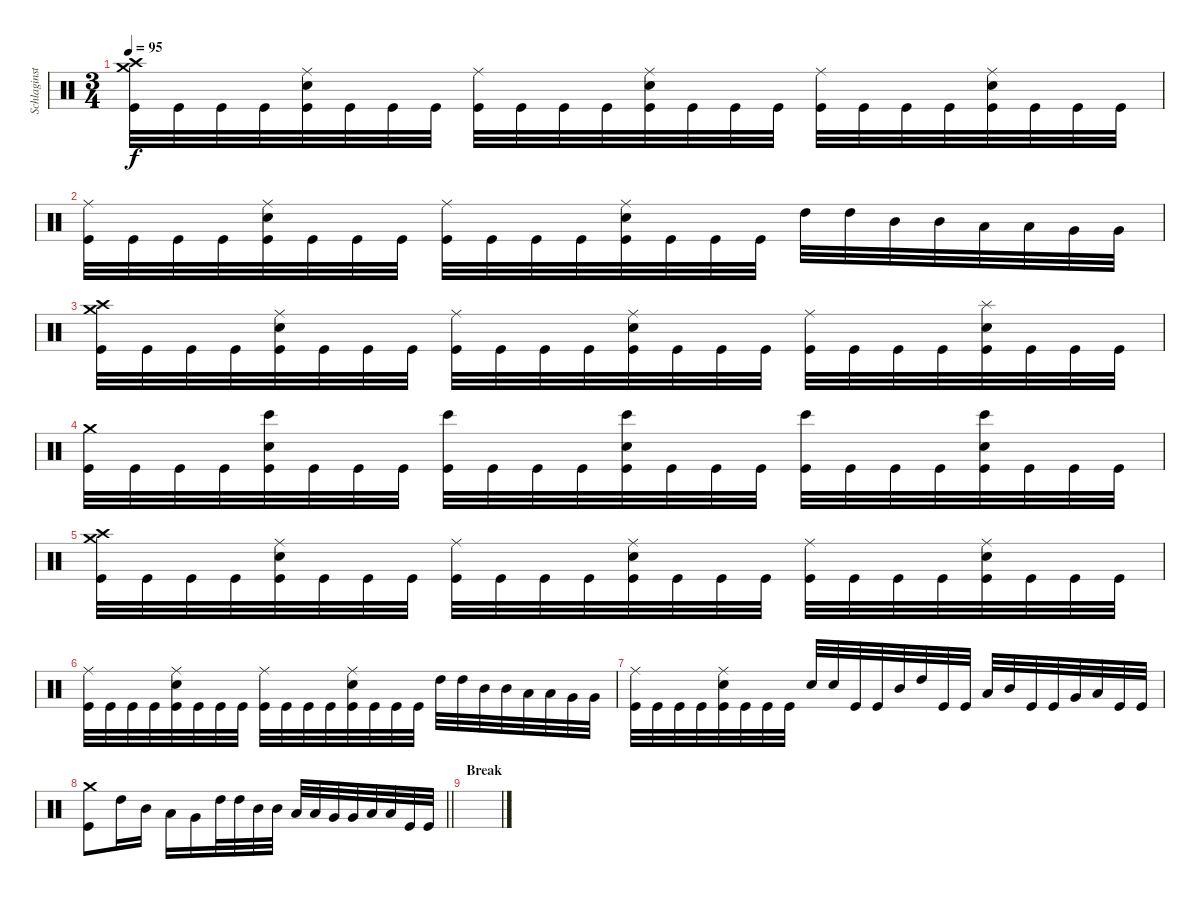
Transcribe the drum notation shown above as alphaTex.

\track ("Schlaginstrumente - Auswahl" "Schlaginst") {instrument percussion}
\staff {score}
\articulation defaults
\ts (3 4)
\tempo 95
\clef neutral
\ks c
("Kick (hit)" "Crash high (hit)" "Crash medium (hit)").32{dy f} "Kick (hit)".32 "Kick (hit)".32 "Kick (hit)".32 ("Kick (hit)" "Snare (hit) 2" "Ride (middle)").32 "Kick (hit)".32 "Kick (hit)".32 "Kick (hit)".32 ("Kick (hit)" "Ride (middle)").32 "Kick (hit)".32 "Kick (hit)".32 "Kick (hit)".32 ("Kick (hit)" "Snare (hit) 2" "Ride (middle)").32 "Kick (hit)".32 "Kick (hit)".32 "Kick (hit)".32 ("Kick (hit)" "Ride (middle)").32 "Kick (hit)".32 "Kick (hit)".32 "Kick (hit)".32 ("Kick (hit)" "Snare (hit) 2" "Ride (middle)").32 "Kick (hit)".32 "Kick (hit)".32 "Kick (hit)".32 |
("Kick (hit)" "Ride (middle)").32 "Kick (hit)".32 "Kick (hit)".32 "Kick (hit)".32 ("Kick (hit)" "Snare (hit) 2" "Ride (middle)").32 "Kick (hit)".32 "Kick (hit)".32 "Kick (hit)".32 ("Kick (hit)" "Ride (middle)").32 "Kick (hit)".32 "Kick (hit)".32 "Kick (hit)".32 ("Kick (hit)" "Snare (hit) 2" "Ride (middle)").32 "Kick (hit)".32 "Kick (hit)".32 "Kick (hit)".32 "High Tom (hit)".32 "High Tom (hit)".32 "Mid Tom (hit)".32 "Mid Tom (hit)".32 "Low Tom (hit)".32 "Low Tom (hit)".32 "Very Low Tom (hit)".32 "Very Low Tom (hit)".32 |
("Kick (hit)" "Crash high (hit)" "Crash medium (hit)").32 "Kick (hit)".32 "Kick (hit)".32 "Kick (hit)".32 ("Kick (hit)" "Snare (hit) 2" "Ride (middle)").32 "Kick (hit)".32 "Kick (hit)".32 "Kick (hit)".32 ("Kick (hit)" "Ride (middle)").32 "Kick (hit)".32 "Kick (hit)".32 "Kick (hit)".32 ("Kick (hit)" "Snare (hit) 2" "Ride (middle)").32 "Kick (hit)".32 "Kick (hit)".32 "Kick (hit)".32 ("Kick (hit)" "Ride (middle)").32 "Kick (hit)".32 "Kick (hit)".32 "Kick (hit)".32 ("Kick (hit)" "Snare (hit) 2" "Splash (hit)").32 "Kick (hit)".32 "Kick (hit)".32 "Kick (hit)".32 |
("Kick (hit)" "Crash medium (hit)").32 "Kick (hit)".32 "Kick (hit)".32 "Kick (hit)".32 ("Kick (hit)" "Snare (hit) 2" "Bongo High (hit)").32 "Kick (hit)".32 "Kick (hit)".32 "Kick (hit)".32 ("Kick (hit)" "Bongo High (hit)").32 "Kick (hit)".32 "Kick (hit)".32 "Kick (hit)".32 ("Kick (hit)" "Snare (hit) 2" "Bongo High (hit)").32 "Kick (hit)".32 "Kick (hit)".32 "Kick (hit)".32 ("Kick (hit)" "Bongo High (hit)").32 "Kick (hit)".32 "Kick (hit)".32 "Kick (hit)".32 ("Kick (hit)" "Snare (hit) 2" "Bongo High (hit)").32 "Kick (hit)".32 "Kick (hit)".32 "Kick (hit)".32 |
("Kick (hit)" "Crash high (hit)" "Crash medium (hit)").32 "Kick (hit)".32 "Kick (hit)".32 "Kick (hit)".32 ("Kick (hit)" "Snare (hit) 2" "Ride (middle)").32 "Kick (hit)".32 "Kick (hit)".32 "Kick (hit)".32 ("Kick (hit)" "Ride (middle)").32 "Kick (hit)".32 "Kick (hit)".32 "Kick (hit)".32 ("Kick (hit)" "Snare (hit) 2" "Ride (middle)").32 "Kick (hit)".32 "Kick (hit)".32 "Kick (hit)".32 ("Kick (hit)" "Ride (middle)").32 "Kick (hit)".32 "Kick (hit)".32 "Kick (hit)".32 ("Kick (hit)" "Snare (hit) 2" "Ride (middle)").32 "Kick (hit)".32 "Kick (hit)".32 "Kick (hit)".32 |
("Kick (hit)" "Ride (middle)").32 "Kick (hit)".32 "Kick (hit)".32 "Kick (hit)".32 ("Kick (hit)" "Snare (hit) 2" "Ride (middle)").32 "Kick (hit)".32 "Kick (hit)".32 "Kick (hit)".32 ("Kick (hit)" "Ride (middle)").32 "Kick (hit)".32 "Kick (hit)".32 "Kick (hit)".32 ("Kick (hit)" "Snare (hit) 2" "Ride (middle)").32 "Kick (hit)".32 "Kick (hit)".32 "Kick (hit)".32 "High Tom (hit)".32 "High Tom (hit)".32 "Mid Tom (hit)".32 "Mid Tom (hit)".32 "Low Tom (hit)".32 "Low Tom (hit)".32 "Very Low Tom (hit)".32 "Very Low Tom (hit)".32 |
("Kick (hit)" "Ride (middle)").32 "Kick (hit)".32 "Kick (hit)".32 "Kick (hit)".32 ("Kick (hit)" "Snare (hit) 2" "Ride (middle)").32 "Kick (hit)".32 "Kick (hit)".32 "Kick (hit)".32 "Snare (hit) 2".32 "Snare (hit) 2".32 "Kick (hit)".32 "Kick (hit)".32 "Mid Tom (hit)".32 "High Tom (hit)".32 "Kick (hit)".32 "Kick (hit)".32 "Low Tom (hit)".32 "Mid Tom (hit)".32 "Kick (hit)".32 "Kick (hit)".32 "Very Low Tom (hit)".32 "Low Tom (hit)".32 "Kick (hit)".32 "Kick (hit)".32 |
\barLineRight lightlight
("Kick (hit)" "Crash medium (hit)").8 "High Tom (hit)".16 "Mid Tom (hit)".16 "Low Tom (hit)".16 "Very Low Tom (hit)".16 "High Tom (hit)".32 "High Tom (hit)".32 "Mid Tom (hit)".32 "Mid Tom (hit)".32 "Low Tom (hit)".32 "Low Tom (hit)".32 "Very Low Tom (hit)".32 "Very Low Tom (hit)".32 "Low Floor Tom (hit)".32 "Low Floor Tom (hit)".32 "Kick (hit)".32 "Kick (hit)".32 |
\section ("" "Break")
